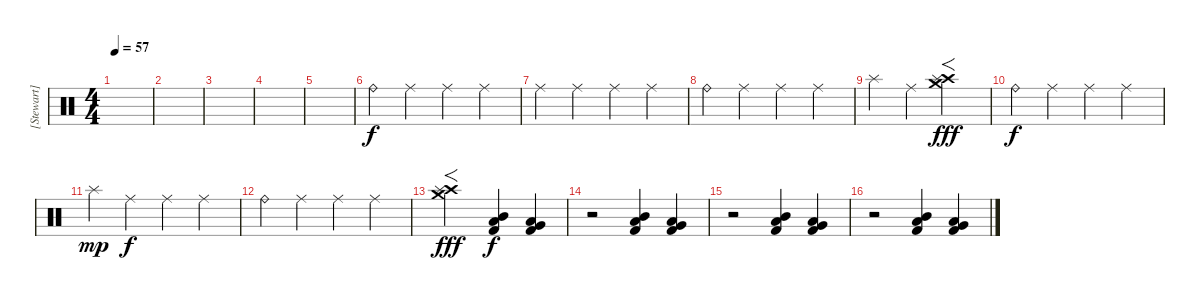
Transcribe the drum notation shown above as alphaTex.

\track ("[Stewart]" "[Stewart]") {instrument percussion}
\staff {score}
\articulation defaults
\ts (4 4)
\tempo 57
\clef neutral
\ks c
|
|
|
|
|
"Ride (bell)".4 "Ride (middle)".4 "Ride (middle)".4 "Ride (middle)".4 |
"Ride (middle)".4 "Ride (middle)".4 "Ride (middle)".4 "Ride (middle)".4 |
"Ride (bell)".4 "Ride (middle)".4 "Ride (middle)".4 "Ride (middle)".4 |
"Splash (hit)".4 "Ride (middle)".4 ("Crash medium (hit)" "Crash high (hit)" "Splash (hit)").2{f dy fff} |
"Ride (bell)".4{dy f} "Ride (middle)".4 "Ride (middle)".4 "Ride (middle)".4 |
"Splash (hit)".4{dy mp} "Ride (middle)".4{dy f} "Ride (middle)".4 "Ride (middle)".4 |
"Ride (bell)".4 "Ride (middle)".4 "Ride (middle)".4 "Ride (middle)".4 |
("Crash medium (hit)" "Crash high (hit)" "Splash (hit)").2{f dy fff} ("Mid Tom (hit)" "Low Tom (hit)" "Kick (hit) 2").4{dy f} ("Low Tom (hit)" "Very Low Tom (hit)" "Kick (hit) 2").4 |
r.2 ("Mid Tom (hit)" "Low Tom (hit)" "Kick (hit) 2").4 ("Low Tom (hit)" "Very Low Tom (hit)" "Kick (hit) 2").4 |
r.2 ("Mid Tom (hit)" "Low Tom (hit)" "Kick (hit) 2").4 ("Low Tom (hit)" "Very Low Tom (hit)" "Kick (hit) 2").4 |
r.2 ("Mid Tom (hit)" "Low Tom (hit)" "Kick (hit) 2").4 ("Low Tom (hit)" "Very Low Tom (hit)" "Kick (hit) 2").4
